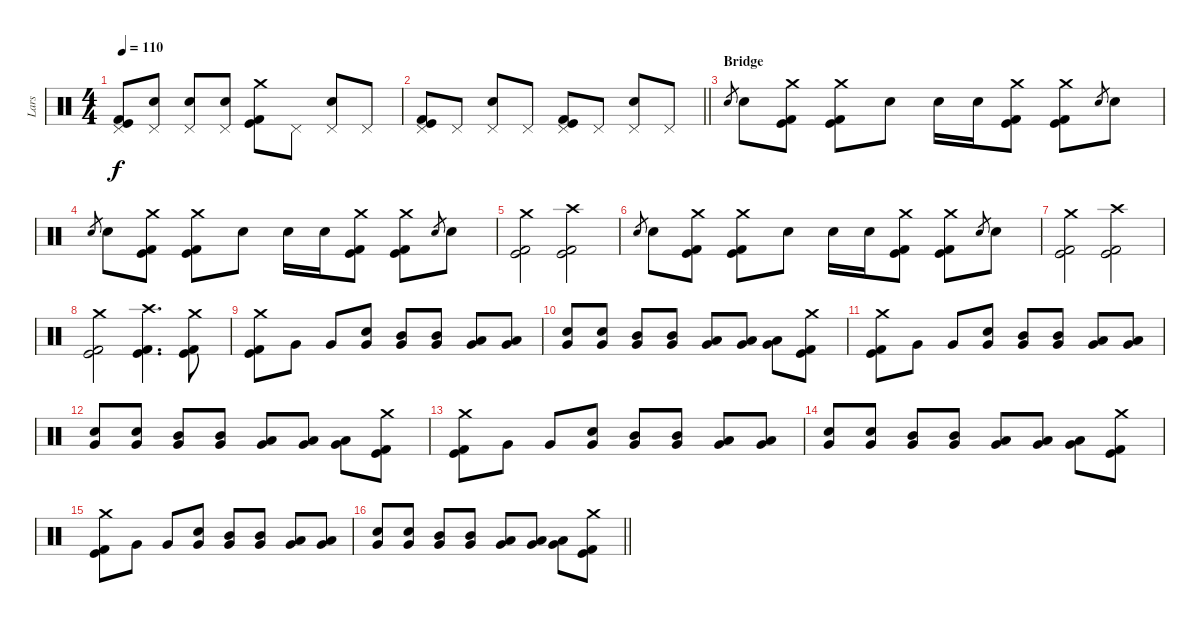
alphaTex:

\track ("Lars" "Lars") {instrument percussion}
\staff {score}
\articulation defaults
\ts (4 4)
\tempo 110
\clef neutral
\ks c
("Pedal Hi-Hat (hit)" "Kick (hit)" "Kick (hit) 2").8{dy f} ("Pedal Hi-Hat (hit)" "Electric Snare (hit)").8 ("Pedal Hi-Hat (hit)" "Electric Snare (hit)").8 ("Pedal Hi-Hat (hit)" "Electric Snare (hit)").8 ("Crash medium (hit)" "Kick (hit)" "Kick (hit) 2").8 "Pedal Hi-Hat (hit)".8 ("Pedal Hi-Hat (hit)" "Electric Snare (hit)").8 "Pedal Hi-Hat (hit)".8 |
\barLineRight lightlight
("Pedal Hi-Hat (hit)" "Kick (hit)" "Kick (hit) 2").8 "Pedal Hi-Hat (hit)".8 ("Pedal Hi-Hat (hit)" "Electric Snare (hit)").8 "Pedal Hi-Hat (hit)".8 ("Pedal Hi-Hat (hit)" "Kick (hit)" "Kick (hit) 2").8 "Pedal Hi-Hat (hit)".8 ("Pedal Hi-Hat (hit)" "Electric Snare (hit)").8 "Pedal Hi-Hat (hit)".8 |
\section ("" "Bridge")
"Electric Snare (hit)".8{gr} "Electric Snare (hit)".8 ("Crash medium (hit)" "Kick (hit)" "Kick (hit) 2").8 ("Crash medium (hit)" "Kick (hit)" "Kick (hit) 2").8 "Electric Snare (hit)".8 "Electric Snare (hit)".16 "Electric Snare (hit)".16 ("Crash medium (hit)" "Kick (hit)" "Kick (hit) 2").8 ("Crash medium (hit)" "Kick (hit)" "Kick (hit) 2").8 "Electric Snare (hit)".8{gr} "Electric Snare (hit)".8 |
"Electric Snare (hit)".8{gr} "Electric Snare (hit)".8 ("Crash medium (hit)" "Kick (hit)" "Kick (hit) 2").8 ("Crash medium (hit)" "Kick (hit)" "Kick (hit) 2").8 "Electric Snare (hit)".8 "Electric Snare (hit)".16 "Electric Snare (hit)".16 ("Crash medium (hit)" "Kick (hit)" "Kick (hit) 2").8 ("Crash medium (hit)" "Kick (hit)" "Kick (hit) 2").8 "Electric Snare (hit)".8{gr} "Electric Snare (hit)".8 |
("Crash medium (hit)" "Kick (hit)" "Kick (hit) 2").2 ("Crash high (hit)" "Kick (hit)" "Kick (hit) 2").2 |
"Electric Snare (hit)".8{gr} "Electric Snare (hit)".8 ("Crash medium (hit)" "Kick (hit)" "Kick (hit) 2").8 ("Crash medium (hit)" "Kick (hit)" "Kick (hit) 2").8 "Electric Snare (hit)".8 "Electric Snare (hit)".16 "Electric Snare (hit)".16 ("Crash medium (hit)" "Kick (hit)" "Kick (hit) 2").8 ("Crash medium (hit)" "Kick (hit)" "Kick (hit) 2").8 "Electric Snare (hit)".8{gr} "Electric Snare (hit)".8 |
("Crash medium (hit)" "Kick (hit)" "Kick (hit) 2").2 ("Crash high (hit)" "Kick (hit)" "Kick (hit) 2").2 |
("Crash medium (hit)" "Kick (hit)" "Kick (hit) 2").2 ("Crash high (hit)" "Kick (hit)" "Kick (hit) 2").4{d} ("Crash medium (hit)" "Kick (hit)" "Kick (hit) 2").8 |
("Crash medium (hit)" "Kick (hit)" "Kick (hit) 2").8 "Very Low Tom (hit)".8 "Very Low Tom (hit)".8 ("Very Low Tom (hit)" "Electric Snare (hit)").8 ("Very Low Tom (hit)" "Mid Tom (hit)").8 ("Very Low Tom (hit)" "Mid Tom (hit)").8 ("Very Low Tom (hit)" "Low Tom (hit)").8 ("Very Low Tom (hit)" "Low Tom (hit)").8 |
("Very Low Tom (hit)" "Electric Snare (hit)").8 ("Very Low Tom (hit)" "Electric Snare (hit)").8 ("Very Low Tom (hit)" "Mid Tom (hit)").8 ("Very Low Tom (hit)" "Mid Tom (hit)").8 ("Very Low Tom (hit)" "Low Tom (hit)").8 ("Very Low Tom (hit)" "Low Tom (hit)").8 ("Very Low Tom (hit)" "Low Tom (hit)").8 ("Crash medium (hit)" "Kick (hit)" "Kick (hit) 2").8 |
("Crash medium (hit)" "Kick (hit)" "Kick (hit) 2").8 "Very Low Tom (hit)".8 "Very Low Tom (hit)".8 ("Very Low Tom (hit)" "Electric Snare (hit)").8 ("Very Low Tom (hit)" "Mid Tom (hit)").8 ("Very Low Tom (hit)" "Mid Tom (hit)").8 ("Very Low Tom (hit)" "Low Tom (hit)").8 ("Very Low Tom (hit)" "Low Tom (hit)").8 |
("Very Low Tom (hit)" "Electric Snare (hit)").8 ("Very Low Tom (hit)" "Electric Snare (hit)").8 ("Very Low Tom (hit)" "Mid Tom (hit)").8 ("Very Low Tom (hit)" "Mid Tom (hit)").8 ("Very Low Tom (hit)" "Low Tom (hit)").8 ("Very Low Tom (hit)" "Low Tom (hit)").8 ("Very Low Tom (hit)" "Low Tom (hit)").8 ("Crash medium (hit)" "Kick (hit)" "Kick (hit) 2").8 |
("Crash medium (hit)" "Kick (hit)" "Kick (hit) 2").8 "Very Low Tom (hit)".8 "Very Low Tom (hit)".8 ("Very Low Tom (hit)" "Electric Snare (hit)").8 ("Very Low Tom (hit)" "Mid Tom (hit)").8 ("Very Low Tom (hit)" "Mid Tom (hit)").8 ("Very Low Tom (hit)" "Low Tom (hit)").8 ("Very Low Tom (hit)" "Low Tom (hit)").8 |
("Very Low Tom (hit)" "Electric Snare (hit)").8 ("Very Low Tom (hit)" "Electric Snare (hit)").8 ("Very Low Tom (hit)" "Mid Tom (hit)").8 ("Very Low Tom (hit)" "Mid Tom (hit)").8 ("Very Low Tom (hit)" "Low Tom (hit)").8 ("Very Low Tom (hit)" "Low Tom (hit)").8 ("Very Low Tom (hit)" "Low Tom (hit)").8 ("Crash medium (hit)" "Kick (hit)" "Kick (hit) 2").8 |
("Crash medium (hit)" "Kick (hit)" "Kick (hit) 2").8 "Very Low Tom (hit)".8 "Very Low Tom (hit)".8 ("Very Low Tom (hit)" "Electric Snare (hit)").8 ("Very Low Tom (hit)" "Mid Tom (hit)").8 ("Very Low Tom (hit)" "Mid Tom (hit)").8 ("Very Low Tom (hit)" "Low Tom (hit)").8 ("Very Low Tom (hit)" "Low Tom (hit)").8 |
\barLineRight lightlight
("Very Low Tom (hit)" "Electric Snare (hit)").8 ("Very Low Tom (hit)" "Electric Snare (hit)").8 ("Very Low Tom (hit)" "Mid Tom (hit)").8 ("Very Low Tom (hit)" "Mid Tom (hit)").8 ("Very Low Tom (hit)" "Low Tom (hit)").8 ("Very Low Tom (hit)" "Low Tom (hit)").8 ("Very Low Tom (hit)" "Low Tom (hit)").8 ("Crash medium (hit)" "Kick (hit)" "Kick (hit) 2").8
